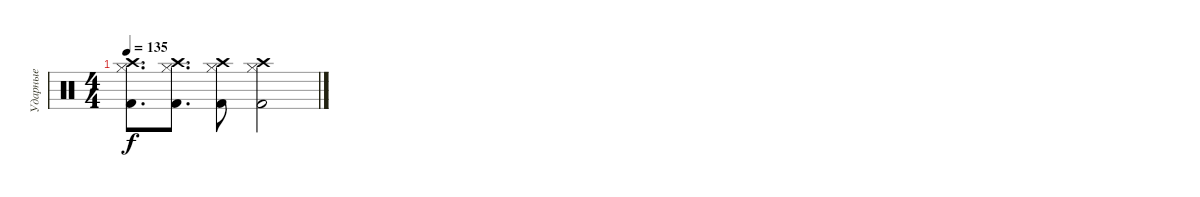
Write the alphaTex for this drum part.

\track ("Ударные" "Ударные") {instrument percussion}
\staff {score}
\articulation defaults
\ts (4 4)
\tempo 135
\clef neutral
\ks c
("Hi-Hat (closed)" "Crash high (hit)" "Kick (hit) 2").8{d dy f} ("Hi-Hat (closed)" "Crash high (hit)" "Kick (hit) 2").8{d} ("Hi-Hat (closed)" "Crash high (hit)" "Kick (hit) 2").8 ("Hi-Hat (closed)" "Crash high (hit)" "Kick (hit) 2").2
